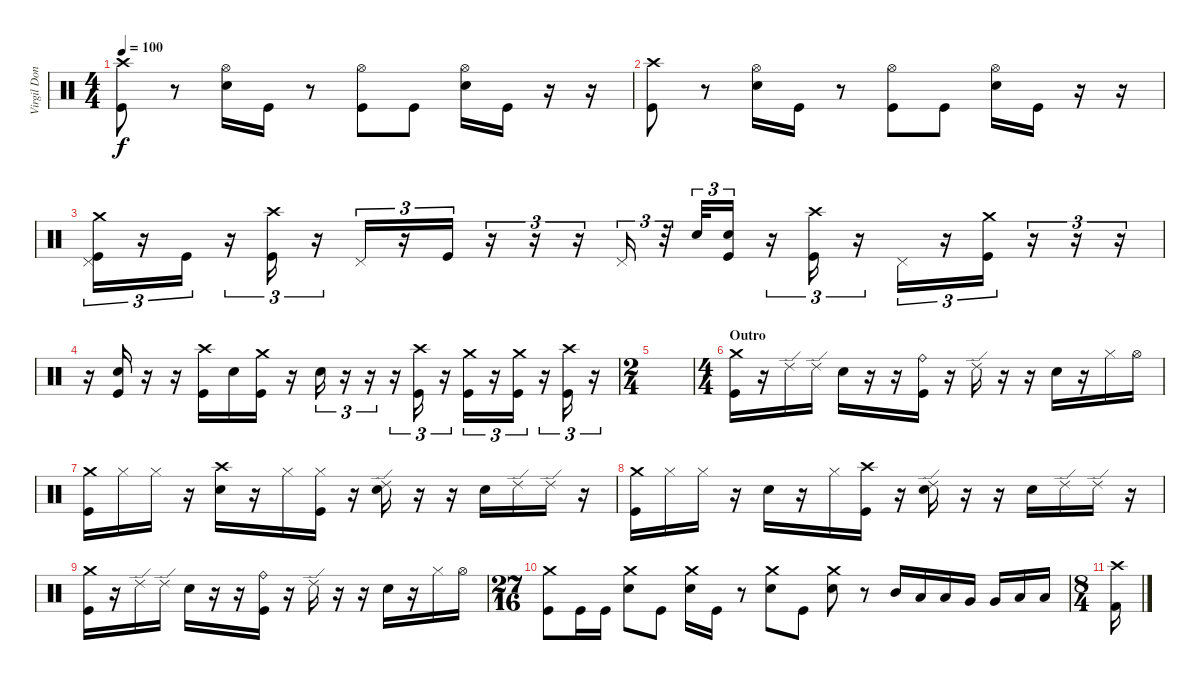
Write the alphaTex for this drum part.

\track ("Virgil Donati" "Virgil Don") {instrument percussion}
\staff {score}
\articulation defaults
\ts (4 4)
\tempo 100
\clef neutral
\ks c
("Crash high (hit)" "Kick (hit)").8{dy f} r.8 ("Hi-Hat (open)" "Electric Snare (hit)").16 "Kick (hit)".16 r.8 ("Hi-Hat (open)" "Kick (hit)").8 "Kick (hit)".8 ("Hi-Hat (open)" "Electric Snare (hit)").16 "Kick (hit)".16 r.16 r.16 |
("Crash high (hit)" "Kick (hit)").8 r.8 ("Hi-Hat (open)" "Electric Snare (hit)").16 "Kick (hit)".16 r.8 ("Hi-Hat (open)" "Kick (hit)").8 "Kick (hit)".8 ("Hi-Hat (open)" "Electric Snare (hit)").16 "Kick (hit)".16 r.16 r.16 |
("Pedal Hi-Hat (hit)" "Crash medium (hit)" "Kick (hit)").16{tu (3 2)} r.16{tu (3 2)} "Kick (hit)".16{tu (3 2)} r.16{tu (3 2)} ("Crash high (hit)" "Kick (hit)").16{tu (3 2)} r.16{tu (3 2)} "Pedal Hi-Hat (hit)".16{tu (3 2)} r.16{tu (3 2)} "Kick (hit)".16{tu (3 2)} r.16{tu (3 2)} r.16{tu (3 2)} r.16{tu (3 2)} "Pedal Hi-Hat (hit)".16{tu (3 2)} r.32{tu (3 2)} "Electric Snare (hit)".32{tu (3 2)} ("Electric Snare (hit)" "Kick (hit)").16{tu (3 2)} r.16{tu (3 2)} ("Crash high (hit)" "Kick (hit)").16{tu (3 2)} r.16{tu (3 2)} "Pedal Hi-Hat (hit)".16{tu (3 2)} r.16{tu (3 2)} ("Crash medium (hit)" "Kick (hit)").16{tu (3 2)} r.16{tu (3 2)} r.16{tu (3 2)} r.16{tu (3 2)} |
r.16 ("Electric Snare (hit)" "Kick (hit)").16 r.16 r.16 ("Crash high (hit)" "Kick (hit)").16 "Electric Snare (hit)".16 ("Crash medium (hit)" "Kick (hit)").16 r.16 "Electric Snare (hit)".16{tu (3 2)} r.16{tu (3 2)} r.16{tu (3 2)} r.16{tu (3 2)} ("Crash high (hit)" "Kick (hit)").16{tu (3 2)} r.16{tu (3 2)} ("Crash medium (hit)" "Kick (hit)").16{tu (3 2)} r.16{tu (3 2)} ("Crash medium (hit)" "Kick (hit)").16{tu (3 2)} r.16{tu (3 2)} ("Crash high (hit)" "Kick (hit)").16{tu (3 2)} r.16{tu (3 2)} |
\ts (2 4)
|
\ts (4 4)
\section ("" "Outro")
("Crash medium (hit)" "Kick (hit)").16 r.16 "Ride (edge) 2".16 "Ride (edge) 2".16 "Electric Snare (hit)".16 r.16 r.16 ("Ride (bell)" "Kick (hit)").16 r.16 "Ride (edge) 2".16 r.16 r.16 "Electric Snare (hit)".16 r.16 "Hi-Hat (closed)".16 "Hi-Hat (open)".16 |
("Crash medium (hit)" "Kick (hit)").16 "Hi-Hat (closed)".16 "Hi-Hat (closed)".16 r.16 ("Crash high (hit)" "Electric Snare (hit)").16 r.16 "Hi-Hat (closed)".16 ("Hi-Hat (closed)" "Kick (hit)").16 r.16 ("Ride (edge) 2" "Electric Snare (hit)").16 r.16 r.16 "Electric Snare (hit)".16 "Ride (edge) 2".16 "Ride (edge) 2".16 r.16 |
("Crash medium (hit)" "Kick (hit)").16 "Hi-Hat (closed)".16 "Hi-Hat (closed)".16 r.16 "Electric Snare (hit)".16 r.16 "Hi-Hat (closed)".16 ("Crash high (hit)" "Kick (hit)").16 r.16 ("Ride (edge) 2" "Electric Snare (hit)").16 r.16 r.16 "Electric Snare (hit)".16 "Ride (edge) 2".16 "Ride (edge) 2".16 r.16 |
("Crash medium (hit)" "Kick (hit)").16 r.16 "Ride (edge) 2".16 "Ride (edge) 2".16 "Electric Snare (hit)".16 r.16 r.16 ("Ride (bell)" "Kick (hit)").16 r.16 "Ride (edge) 2".16 r.16 r.16 "Electric Snare (hit)".16 r.16 "Hi-Hat (closed)".16 "Hi-Hat (open)".16 |
\ts (27 16)
("Crash medium (hit)" "Kick (hit)").8 "Kick (hit)".16 "Kick (hit)".16 ("Crash medium (hit)" "Electric Snare (hit)").8 "Kick (hit)".8 ("Crash medium (hit)" "Electric Snare (hit)").16 "Kick (hit)".16 r.8 ("Crash medium (hit)" "Electric Snare (hit)").8 "Kick (hit)".8 ("Crash medium (hit)" "Electric Snare (hit)").8 r.8 "Mid Tom (hit)".16 "Low Tom (hit)".16 "Low Tom (hit)".16 "Very Low Tom (hit)".16 "Very Low Tom (hit)".16 "Low Floor Tom (hit)".16 "Low Floor Tom (hit)".16 |
\ts (8 4)
("Crash high (hit)" "Kick (hit) 2").16
